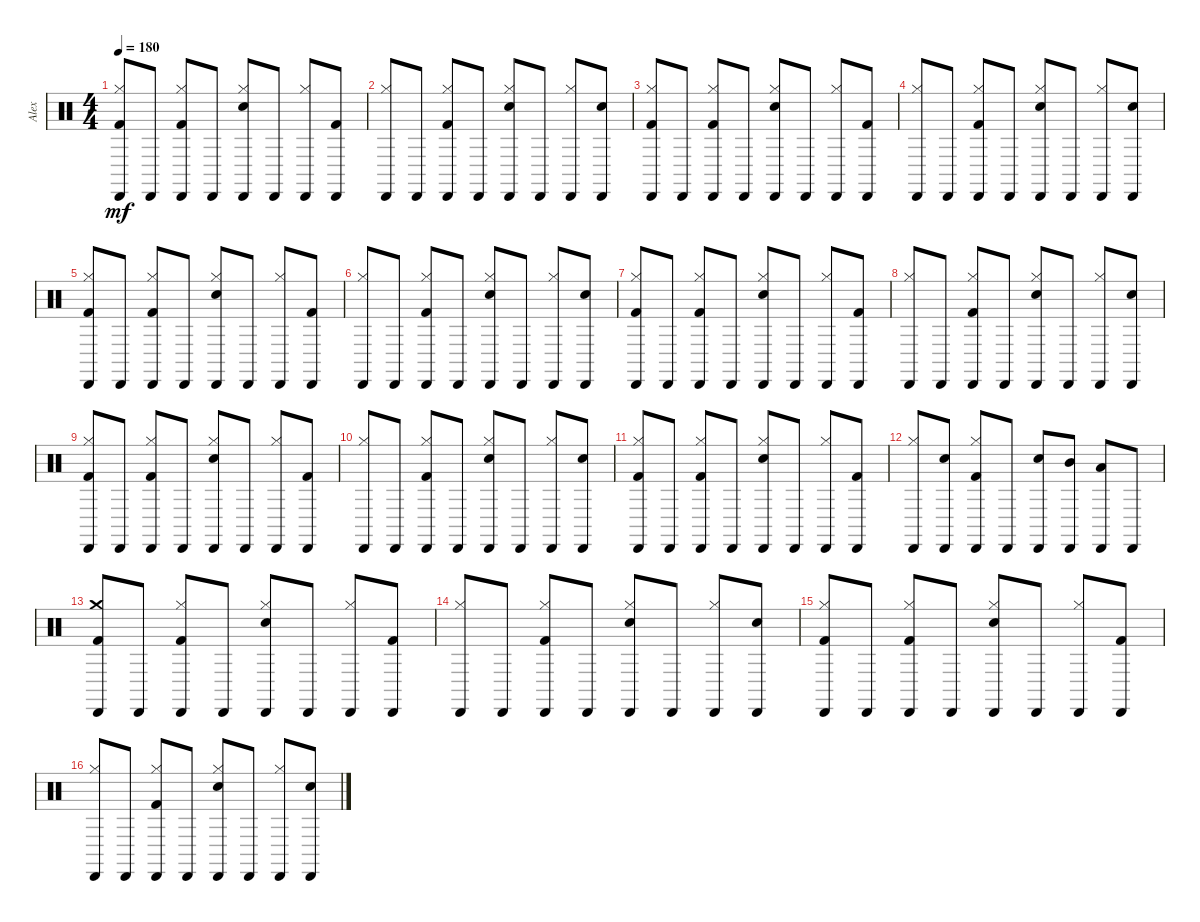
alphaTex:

\track ("Alex" "Alex") {instrument percussion}
\staff {score}
\articulation defaults
\ts (4 4)
\tempo 180
\clef neutral
\ks c
("Hi-Hat (closed)" "Kick (hit) 2" "Cabasa (hit)").8{dy mf} "Cabasa (hit)".8 ("Hi-Hat (closed)" "Kick (hit) 2" "Cabasa (hit)").8 "Cabasa (hit)".8 ("Hi-Hat (closed)" "Snare (hit) 2" "Cabasa (hit)").8 "Cabasa (hit)".8 ("Hi-Hat (closed)" "Cabasa (hit)").8 ("Kick (hit) 2" "Cabasa (hit)").8 |
("Hi-Hat (closed)" "Cabasa (hit)").8 "Cabasa (hit)".8 ("Hi-Hat (closed)" "Kick (hit) 2" "Cabasa (hit)").8 "Cabasa (hit)".8 ("Hi-Hat (closed)" "Snare (hit) 2" "Cabasa (hit)").8 "Cabasa (hit)".8 ("Hi-Hat (closed)" "Cabasa (hit)").8 ("Snare (hit) 2" "Cabasa (hit)").8 |
("Hi-Hat (closed)" "Kick (hit) 2" "Cabasa (hit)").8 "Cabasa (hit)".8 ("Hi-Hat (closed)" "Kick (hit) 2" "Cabasa (hit)").8 "Cabasa (hit)".8 ("Hi-Hat (closed)" "Snare (hit) 2" "Cabasa (hit)").8 "Cabasa (hit)".8 ("Hi-Hat (closed)" "Cabasa (hit)").8 ("Kick (hit) 2" "Cabasa (hit)").8 |
("Hi-Hat (closed)" "Cabasa (hit)").8 "Cabasa (hit)".8 ("Hi-Hat (closed)" "Kick (hit) 2" "Cabasa (hit)").8 "Cabasa (hit)".8 ("Hi-Hat (closed)" "Snare (hit) 2" "Cabasa (hit)").8 "Cabasa (hit)".8 ("Hi-Hat (closed)" "Cabasa (hit)").8 ("Snare (hit) 2" "Cabasa (hit)").8 |
("Hi-Hat (closed)" "Kick (hit) 2" "Cabasa (hit)").8 "Cabasa (hit)".8 ("Hi-Hat (closed)" "Kick (hit) 2" "Cabasa (hit)").8 "Cabasa (hit)".8 ("Hi-Hat (closed)" "Snare (hit) 2" "Cabasa (hit)").8 "Cabasa (hit)".8 ("Hi-Hat (closed)" "Cabasa (hit)").8 ("Kick (hit) 2" "Cabasa (hit)").8 |
("Hi-Hat (closed)" "Cabasa (hit)").8 "Cabasa (hit)".8 ("Hi-Hat (closed)" "Kick (hit) 2" "Cabasa (hit)").8 "Cabasa (hit)".8 ("Hi-Hat (closed)" "Snare (hit) 2" "Cabasa (hit)").8 "Cabasa (hit)".8 ("Hi-Hat (closed)" "Cabasa (hit)").8 ("Snare (hit) 2" "Cabasa (hit)").8 |
("Hi-Hat (closed)" "Kick (hit) 2" "Cabasa (hit)").8 "Cabasa (hit)".8 ("Hi-Hat (closed)" "Kick (hit) 2" "Cabasa (hit)").8 "Cabasa (hit)".8 ("Hi-Hat (closed)" "Snare (hit) 2" "Cabasa (hit)").8 "Cabasa (hit)".8 ("Hi-Hat (closed)" "Cabasa (hit)").8 ("Kick (hit) 2" "Cabasa (hit)").8 |
("Hi-Hat (closed)" "Cabasa (hit)").8 "Cabasa (hit)".8 ("Hi-Hat (closed)" "Kick (hit) 2" "Cabasa (hit)").8 "Cabasa (hit)".8 ("Hi-Hat (closed)" "Snare (hit) 2" "Cabasa (hit)").8 "Cabasa (hit)".8 ("Hi-Hat (closed)" "Cabasa (hit)").8 ("Snare (hit) 2" "Cabasa (hit)").8 |
("Hi-Hat (closed)" "Kick (hit) 2" "Cabasa (hit)").8 "Cabasa (hit)".8 ("Hi-Hat (closed)" "Kick (hit) 2" "Cabasa (hit)").8 "Cabasa (hit)".8 ("Hi-Hat (closed)" "Snare (hit) 2" "Cabasa (hit)").8 "Cabasa (hit)".8 ("Hi-Hat (closed)" "Cabasa (hit)").8 ("Kick (hit) 2" "Cabasa (hit)").8 |
("Hi-Hat (closed)" "Cabasa (hit)").8 "Cabasa (hit)".8 ("Hi-Hat (closed)" "Kick (hit) 2" "Cabasa (hit)").8 "Cabasa (hit)".8 ("Hi-Hat (closed)" "Snare (hit) 2" "Cabasa (hit)").8 "Cabasa (hit)".8 ("Hi-Hat (closed)" "Cabasa (hit)").8 ("Snare (hit) 2" "Cabasa (hit)").8 |
("Hi-Hat (closed)" "Kick (hit) 2" "Cabasa (hit)").8 "Cabasa (hit)".8 ("Hi-Hat (closed)" "Kick (hit) 2" "Cabasa (hit)").8 "Cabasa (hit)".8 ("Hi-Hat (closed)" "Snare (hit) 2" "Cabasa (hit)").8 "Cabasa (hit)".8 ("Hi-Hat (closed)" "Cabasa (hit)").8 ("Kick (hit) 2" "Cabasa (hit)").8 |
("Hi-Hat (closed)" "Cabasa (hit)").8 ("Snare (hit) 2" "Cabasa (hit)").8 ("Hi-Hat (closed)" "Kick (hit) 2" "Cabasa (hit)").8 "Cabasa (hit)".8 ("Snare (hit) 2" "Cabasa (hit)").8 ("Mid Tom (hit)" "Cabasa (hit)").8 ("Low Tom (hit)" "Cabasa (hit)").8 "Cabasa (hit)".8 |
("Crash medium (hit)" "Kick (hit) 2" "Cabasa (hit)").8 "Cabasa (hit)".8 ("Hi-Hat (closed)" "Kick (hit) 2" "Cabasa (hit)").8 "Cabasa (hit)".8 ("Hi-Hat (closed)" "Snare (hit) 2" "Cabasa (hit)").8 "Cabasa (hit)".8 ("Hi-Hat (closed)" "Cabasa (hit)").8 ("Kick (hit) 2" "Cabasa (hit)").8 |
("Hi-Hat (closed)" "Cabasa (hit)").8 "Cabasa (hit)".8 ("Hi-Hat (closed)" "Kick (hit) 2" "Cabasa (hit)").8 "Cabasa (hit)".8 ("Hi-Hat (closed)" "Snare (hit) 2" "Cabasa (hit)").8 "Cabasa (hit)".8 ("Hi-Hat (closed)" "Cabasa (hit)").8 ("Snare (hit) 2" "Cabasa (hit)").8 |
("Hi-Hat (closed)" "Kick (hit) 2" "Cabasa (hit)").8 "Cabasa (hit)".8 ("Hi-Hat (closed)" "Kick (hit) 2" "Cabasa (hit)").8 "Cabasa (hit)".8 ("Hi-Hat (closed)" "Snare (hit) 2" "Cabasa (hit)").8 "Cabasa (hit)".8 ("Hi-Hat (closed)" "Cabasa (hit)").8 ("Kick (hit) 2" "Cabasa (hit)").8 |
("Hi-Hat (closed)" "Cabasa (hit)").8 "Cabasa (hit)".8 ("Hi-Hat (closed)" "Kick (hit) 2" "Cabasa (hit)").8 "Cabasa (hit)".8 ("Hi-Hat (closed)" "Snare (hit) 2" "Cabasa (hit)").8 "Cabasa (hit)".8 ("Hi-Hat (closed)" "Cabasa (hit)").8 ("Snare (hit) 2" "Cabasa (hit)").8
